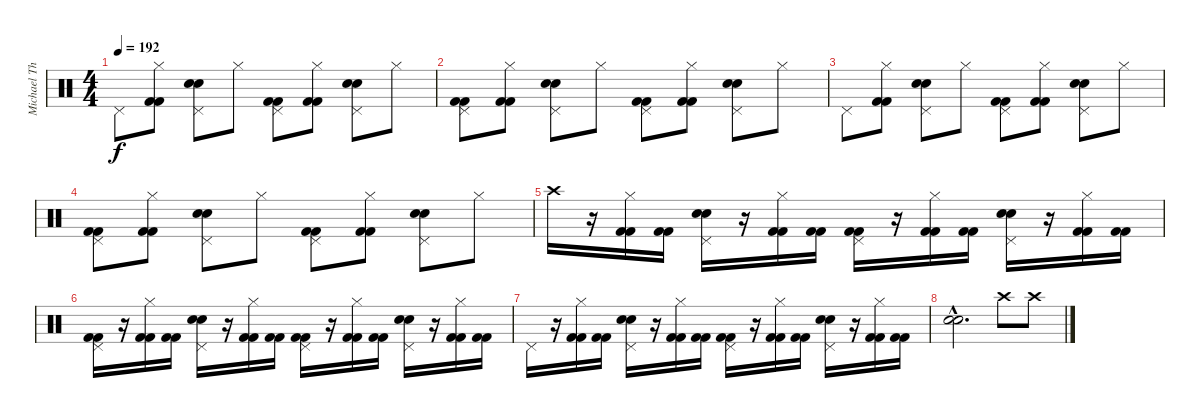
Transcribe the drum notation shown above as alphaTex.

\track ("Michael Thomas" "Michael Th") {instrument percussion}
\staff {score}
\articulation defaults
\ts (4 4)
\tempo 192
\clef neutral
\ks c "Pedal Hi-Hat (hit)".8{dy f}
("Hi-Hat (closed)" "Kick (hit) 2" "Kick (hit) 2").8 ("Pedal Hi-Hat (hit)" "Snare (hit) 2" "Electric Snare (hit)").8 "Hi-Hat (closed)".8 ("Pedal Hi-Hat (hit)" "Kick (hit) 2" "Kick (hit) 2").8 ("Hi-Hat (closed)" "Kick (hit) 2" "Kick (hit) 2").8 ("Pedal Hi-Hat (hit)" "Snare (hit) 2" "Electric Snare (hit)").8 "Hi-Hat (closed)".8 |
("Pedal Hi-Hat (hit)" "Kick (hit) 2" "Kick (hit) 2").8 ("Hi-Hat (closed)" "Kick (hit) 2" "Kick (hit) 2").8 ("Pedal Hi-Hat (hit)" "Snare (hit) 2" "Electric Snare (hit)").8 "Hi-Hat (closed)".8 ("Pedal Hi-Hat (hit)" "Kick (hit) 2" "Kick (hit) 2").8 ("Hi-Hat (closed)" "Kick (hit) 2" "Kick (hit) 2").8 ("Pedal Hi-Hat (hit)" "Snare (hit) 2" "Electric Snare (hit)").8 "Hi-Hat (closed)".8 |
"Pedal Hi-Hat (hit)".8 ("Hi-Hat (closed)" "Kick (hit) 2" "Kick (hit) 2").8 ("Pedal Hi-Hat (hit)" "Snare (hit) 2" "Electric Snare (hit)").8 "Hi-Hat (closed)".8 ("Pedal Hi-Hat (hit)" "Kick (hit) 2" "Kick (hit) 2").8 ("Hi-Hat (closed)" "Kick (hit) 2" "Kick (hit) 2").8 ("Pedal Hi-Hat (hit)" "Snare (hit) 2" "Electric Snare (hit)").8 "Hi-Hat (closed)".8 |
("Pedal Hi-Hat (hit)" "Kick (hit) 2" "Kick (hit) 2").8 ("Hi-Hat (closed)" "Kick (hit) 2" "Kick (hit) 2").8 ("Pedal Hi-Hat (hit)" "Snare (hit) 2" "Electric Snare (hit)").8 "Hi-Hat (closed)".8 ("Pedal Hi-Hat (hit)" "Kick (hit) 2" "Kick (hit) 2").8 ("Hi-Hat (closed)" "Kick (hit) 2" "Kick (hit) 2").8 ("Pedal Hi-Hat (hit)" "Snare (hit) 2" "Electric Snare (hit)").8 "Hi-Hat (closed)".8 |
"Crash high (hit)".16 r.16 ("Hi-Hat (closed)" "Kick (hit) 2" "Kick (hit) 2").16 ("Kick (hit) 2" "Kick (hit) 2").16 ("Pedal Hi-Hat (hit)" "Snare (hit) 2" "Electric Snare (hit)").16 r.16 ("Hi-Hat (closed)" "Kick (hit) 2" "Kick (hit) 2").16 ("Kick (hit) 2" "Kick (hit) 2").16 ("Pedal Hi-Hat (hit)" "Kick (hit) 2" "Kick (hit) 2").16 r.16 ("Hi-Hat (closed)" "Kick (hit) 2" "Kick (hit) 2").16 ("Kick (hit) 2" "Kick (hit) 2").16 ("Pedal Hi-Hat (hit)" "Snare (hit) 2" "Electric Snare (hit)").16 r.16 ("Hi-Hat (closed)" "Kick (hit) 2" "Kick (hit) 2").16 ("Kick (hit) 2" "Kick (hit) 2").16 |
("Pedal Hi-Hat (hit)" "Kick (hit) 2" "Kick (hit) 2").16 r.16 ("Hi-Hat (closed)" "Kick (hit) 2" "Kick (hit) 2").16 ("Kick (hit) 2" "Kick (hit) 2").16 ("Pedal Hi-Hat (hit)" "Snare (hit) 2" "Electric Snare (hit)").16 r.16 ("Hi-Hat (closed)" "Kick (hit) 2" "Kick (hit) 2").16 ("Kick (hit) 2" "Kick (hit) 2").16 ("Pedal Hi-Hat (hit)" "Kick (hit) 2" "Kick (hit) 2").16 r.16 ("Hi-Hat (closed)" "Kick (hit) 2" "Kick (hit) 2").16 ("Kick (hit) 2" "Kick (hit) 2").16 ("Pedal Hi-Hat (hit)" "Snare (hit) 2" "Electric Snare (hit)").16 r.16 ("Hi-Hat (closed)" "Kick (hit) 2" "Kick (hit) 2").16 ("Kick (hit) 2" "Kick (hit) 2").16 |
"Pedal Hi-Hat (hit)".16 r.16 ("Hi-Hat (closed)" "Kick (hit) 2" "Kick (hit) 2").16 ("Kick (hit) 2" "Kick (hit) 2").16 ("Pedal Hi-Hat (hit)" "Snare (hit) 2" "Electric Snare (hit)").16 r.16 ("Hi-Hat (closed)" "Kick (hit) 2" "Kick (hit) 2").16 ("Kick (hit) 2" "Kick (hit) 2").16 ("Pedal Hi-Hat (hit)" "Kick (hit) 2" "Kick (hit) 2").16 r.16 ("Hi-Hat (closed)" "Kick (hit) 2" "Kick (hit) 2").16 ("Kick (hit) 2" "Kick (hit) 2").16 ("Pedal Hi-Hat (hit)" "Snare (hit) 2" "Electric Snare (hit)").16 r.16 ("Hi-Hat (closed)" "Kick (hit) 2" "Kick (hit) 2").16 ("Kick (hit) 2" "Kick (hit) 2").16 |
("Snare (hit) 2"{hac} "Electric Snare (hit)"{hac}).2{d} "Crash high (hit)".8 "Crash high (hit)".8
